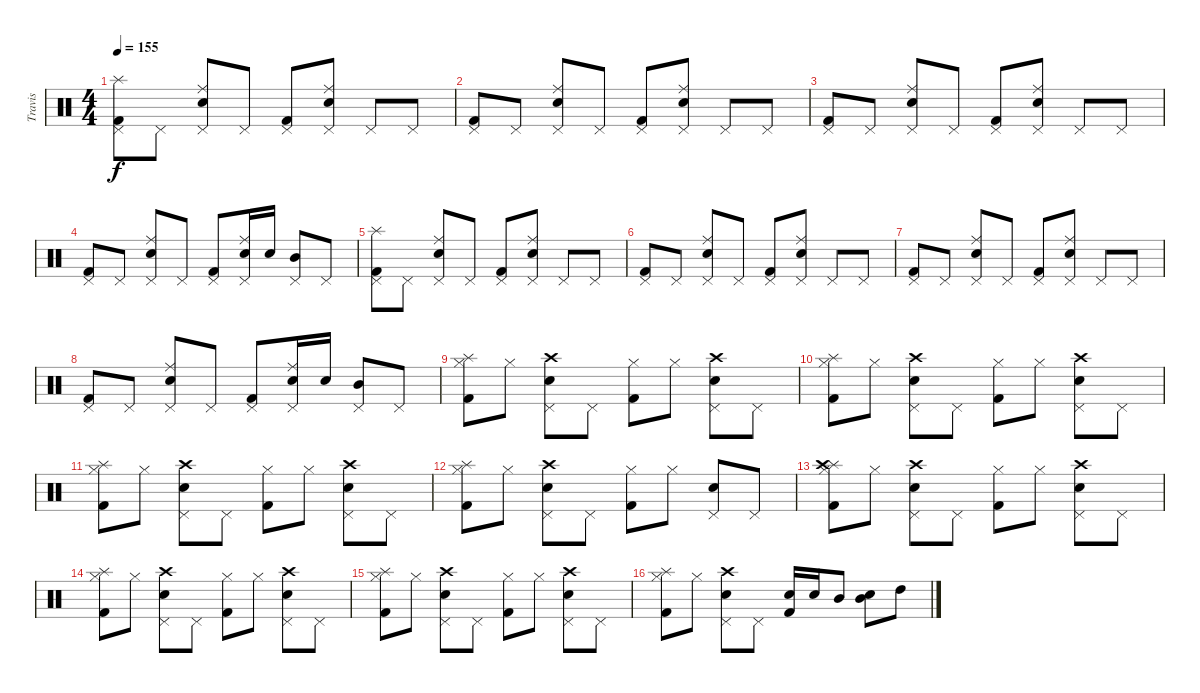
\track ("Travis" "Travis") {instrument percussion}
\staff {score}
\articulation defaults
\ts (4 4)
\tempo 155
\clef neutral
\ks c
("Splash (hit)" "Pedal Hi-Hat (hit)" "Kick (hit) 2").8{dy f} "Pedal Hi-Hat (hit)".8 ("Electric Snare (hit)" "Pedal Hi-Hat (hit)" "Ride (middle)").8 "Pedal Hi-Hat (hit)".8 ("Pedal Hi-Hat (hit)" "Kick (hit) 2").8 ("Electric Snare (hit)" "Pedal Hi-Hat (hit)" "Ride (middle)").8 "Pedal Hi-Hat (hit)".8 "Pedal Hi-Hat (hit)".8 |
("Pedal Hi-Hat (hit)" "Kick (hit) 2").8 "Pedal Hi-Hat (hit)".8 ("Electric Snare (hit)" "Pedal Hi-Hat (hit)" "Ride (middle)").8 "Pedal Hi-Hat (hit)".8 ("Pedal Hi-Hat (hit)" "Kick (hit) 2").8 ("Electric Snare (hit)" "Pedal Hi-Hat (hit)" "Ride (middle)").8 "Pedal Hi-Hat (hit)".8 "Pedal Hi-Hat (hit)".8 |
("Pedal Hi-Hat (hit)" "Kick (hit) 2").8 "Pedal Hi-Hat (hit)".8 ("Electric Snare (hit)" "Pedal Hi-Hat (hit)" "Ride (middle)").8 "Pedal Hi-Hat (hit)".8 ("Pedal Hi-Hat (hit)" "Kick (hit) 2").8 ("Electric Snare (hit)" "Pedal Hi-Hat (hit)" "Ride (middle)").8 "Pedal Hi-Hat (hit)".8 "Pedal Hi-Hat (hit)".8 |
("Pedal Hi-Hat (hit)" "Kick (hit) 2").8 "Pedal Hi-Hat (hit)".8 ("Electric Snare (hit)" "Pedal Hi-Hat (hit)" "Ride (middle)").8 "Pedal Hi-Hat (hit)".8 ("Pedal Hi-Hat (hit)" "Kick (hit) 2").8 ("Electric Snare (hit)" "Pedal Hi-Hat (hit)" "Ride (middle)").16 "Electric Snare (hit)".16 ("Mid Tom (hit)" "Pedal Hi-Hat (hit)").8 "Pedal Hi-Hat (hit)".8 |
("Splash (hit)" "Pedal Hi-Hat (hit)" "Kick (hit) 2").8 "Pedal Hi-Hat (hit)".8 ("Electric Snare (hit)" "Pedal Hi-Hat (hit)" "Ride (middle)").8 "Pedal Hi-Hat (hit)".8 ("Pedal Hi-Hat (hit)" "Kick (hit) 2").8 ("Electric Snare (hit)" "Pedal Hi-Hat (hit)" "Ride (middle)").8 "Pedal Hi-Hat (hit)".8 "Pedal Hi-Hat (hit)".8 |
("Pedal Hi-Hat (hit)" "Kick (hit) 2").8 "Pedal Hi-Hat (hit)".8 ("Electric Snare (hit)" "Pedal Hi-Hat (hit)" "Ride (middle)").8 "Pedal Hi-Hat (hit)".8 ("Pedal Hi-Hat (hit)" "Kick (hit) 2").8 ("Electric Snare (hit)" "Pedal Hi-Hat (hit)" "Ride (middle)").8 "Pedal Hi-Hat (hit)".8 "Pedal Hi-Hat (hit)".8 |
("Pedal Hi-Hat (hit)" "Kick (hit) 2").8 "Pedal Hi-Hat (hit)".8 ("Electric Snare (hit)" "Pedal Hi-Hat (hit)" "Ride (middle)").8 "Pedal Hi-Hat (hit)".8 ("Pedal Hi-Hat (hit)" "Kick (hit) 2").8 ("Electric Snare (hit)" "Pedal Hi-Hat (hit)" "Ride (middle)").8 "Pedal Hi-Hat (hit)".8 "Pedal Hi-Hat (hit)".8 |
("Pedal Hi-Hat (hit)" "Kick (hit) 2").8 "Pedal Hi-Hat (hit)".8 ("Electric Snare (hit)" "Pedal Hi-Hat (hit)" "Ride (middle)").8 "Pedal Hi-Hat (hit)".8 ("Pedal Hi-Hat (hit)" "Kick (hit) 2").8 ("Electric Snare (hit)" "Pedal Hi-Hat (hit)" "Ride (middle)").16 "Electric Snare (hit)".16 ("Mid Tom (hit)" "Pedal Hi-Hat (hit)").8 "Pedal Hi-Hat (hit)".8 |
("Splash (hit)" "Hi-Hat (closed)" "Kick (hit) 2").8 "Hi-Hat (closed)".8 ("Electric Snare (hit)" "Pedal Hi-Hat (hit)" "Crash high (hit)").8 "Pedal Hi-Hat (hit)".8 ("Hi-Hat (closed)" "Kick (hit) 2").8 "Hi-Hat (closed)".8 ("Electric Snare (hit)" "Pedal Hi-Hat (hit)" "Crash high (hit)").8 "Pedal Hi-Hat (hit)".8 |
("Splash (hit)" "Hi-Hat (closed)" "Kick (hit) 2").8 "Hi-Hat (closed)".8 ("Electric Snare (hit)" "Pedal Hi-Hat (hit)" "Crash high (hit)").8 "Pedal Hi-Hat (hit)".8 ("Hi-Hat (closed)" "Kick (hit) 2").8 "Hi-Hat (closed)".8 ("Electric Snare (hit)" "Pedal Hi-Hat (hit)" "Crash high (hit)").8 "Pedal Hi-Hat (hit)".8 |
("Splash (hit)" "Hi-Hat (closed)" "Kick (hit) 2").8 "Hi-Hat (closed)".8 ("Electric Snare (hit)" "Pedal Hi-Hat (hit)" "Crash high (hit)").8 "Pedal Hi-Hat (hit)".8 ("Hi-Hat (closed)" "Kick (hit) 2").8 "Hi-Hat (closed)".8 ("Electric Snare (hit)" "Pedal Hi-Hat (hit)" "Crash high (hit)").8 "Pedal Hi-Hat (hit)".8 |
("Splash (hit)" "Hi-Hat (closed)" "Kick (hit) 2").8 "Hi-Hat (closed)".8 ("Electric Snare (hit)" "Pedal Hi-Hat (hit)" "Crash high (hit)").8 "Pedal Hi-Hat (hit)".8 ("Hi-Hat (closed)" "Kick (hit) 2").8 "Hi-Hat (closed)".8 ("Electric Snare (hit)" "Pedal Hi-Hat (hit)").8 "Pedal Hi-Hat (hit)".8 |
("Splash (hit)" "Hi-Hat (closed)" "Kick (hit) 2" "Crash high (hit)").8 "Hi-Hat (closed)".8 ("Electric Snare (hit)" "Pedal Hi-Hat (hit)" "Crash high (hit)").8 "Pedal Hi-Hat (hit)".8 ("Hi-Hat (closed)" "Kick (hit) 2").8 "Hi-Hat (closed)".8 ("Electric Snare (hit)" "Pedal Hi-Hat (hit)" "Crash high (hit)").8 "Pedal Hi-Hat (hit)".8 |
("Splash (hit)" "Hi-Hat (closed)" "Kick (hit) 2").8 "Hi-Hat (closed)".8 ("Electric Snare (hit)" "Pedal Hi-Hat (hit)" "Crash high (hit)").8 "Pedal Hi-Hat (hit)".8 ("Hi-Hat (closed)" "Kick (hit) 2").8 "Hi-Hat (closed)".8 ("Electric Snare (hit)" "Pedal Hi-Hat (hit)" "Crash high (hit)").8 "Pedal Hi-Hat (hit)".8 |
("Splash (hit)" "Hi-Hat (closed)" "Kick (hit) 2").8 "Hi-Hat (closed)".8 ("Electric Snare (hit)" "Pedal Hi-Hat (hit)" "Crash high (hit)").8 "Pedal Hi-Hat (hit)".8 ("Hi-Hat (closed)" "Kick (hit) 2").8 "Hi-Hat (closed)".8 ("Electric Snare (hit)" "Pedal Hi-Hat (hit)" "Crash high (hit)").8 "Pedal Hi-Hat (hit)".8 |
("Splash (hit)" "Hi-Hat (closed)" "Kick (hit) 2").8 "Hi-Hat (closed)".8 ("Electric Snare (hit)" "Pedal Hi-Hat (hit)" "Crash high (hit)").8 "Pedal Hi-Hat (hit)".8 ("Electric Snare (hit)" "Kick (hit) 2").16 "Electric Snare (hit)".16 "Mid Tom (hit)".8 ("Electric Snare (hit)" "Mid Tom (hit)").8 "High Tom (hit)".8
